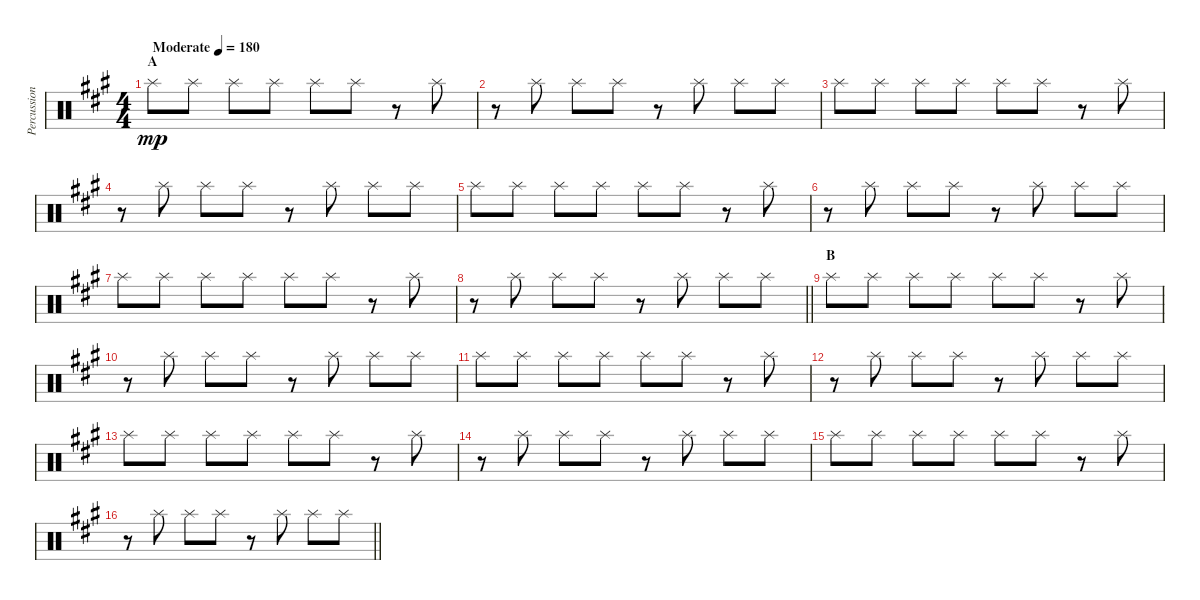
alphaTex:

\track ("Percussion" "Percussion") {instrument percussion}
\staff {score}
\articulation defaults
\ts (4 4)
\section ("" "A")
\tempo (180 "Moderate")
\clef neutral
\ks a "Splash (hit)".8{dy mp} "Splash (hit)".8 "Splash (hit)".8 "Splash (hit)".8 "Splash (hit)".8 "Splash (hit)".8
r.8 "Splash (hit)".8 |
r.8 "Splash (hit)".8 "Splash (hit)".8 "Splash (hit)".8 r.8 "Splash (hit)".8 "Splash (hit)".8 "Splash (hit)".8 |
"Splash (hit)".8 "Splash (hit)".8 "Splash (hit)".8 "Splash (hit)".8 "Splash (hit)".8 "Splash (hit)".8 r.8 "Splash (hit)".8 |
r.8 "Splash (hit)".8 "Splash (hit)".8 "Splash (hit)".8 r.8 "Splash (hit)".8 "Splash (hit)".8 "Splash (hit)".8 |
"Splash (hit)".8 "Splash (hit)".8 "Splash (hit)".8 "Splash (hit)".8 "Splash (hit)".8 "Splash (hit)".8 r.8 "Splash (hit)".8 |
r.8 "Splash (hit)".8 "Splash (hit)".8 "Splash (hit)".8 r.8 "Splash (hit)".8 "Splash (hit)".8 "Splash (hit)".8 |
"Splash (hit)".8 "Splash (hit)".8 "Splash (hit)".8 "Splash (hit)".8 "Splash (hit)".8 "Splash (hit)".8 r.8 "Splash (hit)".8 |
\barLineRight lightlight
r.8 "Splash (hit)".8 "Splash (hit)".8 "Splash (hit)".8 r.8 "Splash (hit)".8 "Splash (hit)".8 "Splash (hit)".8 |
\section ("" "B")
"Splash (hit)".8 "Splash (hit)".8 "Splash (hit)".8 "Splash (hit)".8 "Splash (hit)".8 "Splash (hit)".8 r.8 "Splash (hit)".8 |
r.8 "Splash (hit)".8 "Splash (hit)".8 "Splash (hit)".8 r.8 "Splash (hit)".8 "Splash (hit)".8 "Splash (hit)".8 |
"Splash (hit)".8 "Splash (hit)".8 "Splash (hit)".8 "Splash (hit)".8 "Splash (hit)".8 "Splash (hit)".8 r.8 "Splash (hit)".8 |
r.8 "Splash (hit)".8 "Splash (hit)".8 "Splash (hit)".8 r.8 "Splash (hit)".8 "Splash (hit)".8 "Splash (hit)".8 |
"Splash (hit)".8 "Splash (hit)".8 "Splash (hit)".8 "Splash (hit)".8 "Splash (hit)".8 "Splash (hit)".8 r.8 "Splash (hit)".8 |
r.8 "Splash (hit)".8 "Splash (hit)".8 "Splash (hit)".8 r.8 "Splash (hit)".8 "Splash (hit)".8 "Splash (hit)".8 |
"Splash (hit)".8 "Splash (hit)".8 "Splash (hit)".8 "Splash (hit)".8 "Splash (hit)".8 "Splash (hit)".8 r.8 "Splash (hit)".8 |
\barLineRight lightlight
r.8 "Splash (hit)".8 "Splash (hit)".8 "Splash (hit)".8 r.8 "Splash (hit)".8 "Splash (hit)".8 "Splash (hit)".8
